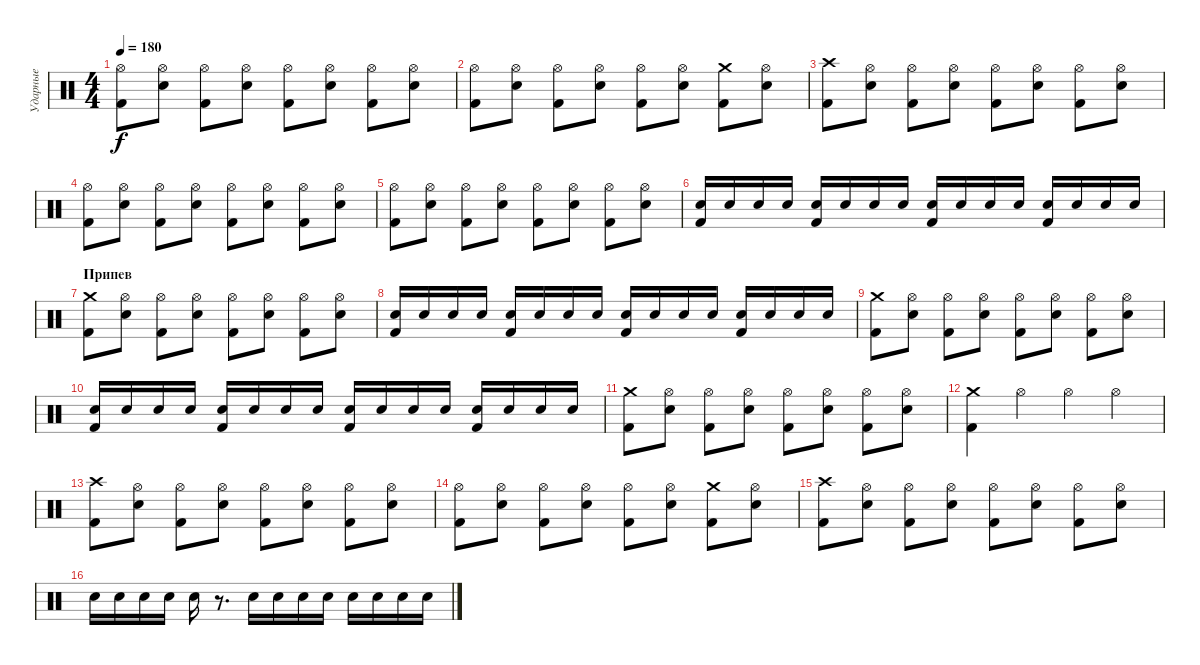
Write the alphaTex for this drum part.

\track ("Ударные" "Ударные") {instrument percussion}
\staff {score}
\articulation defaults
\ts (4 4)
\tempo 180
\clef neutral
\ks c
("Hi-Hat (open)" "Kick (hit) 2").8{dy f} ("Hi-Hat (open)" "Electric Snare (hit)").8 ("Hi-Hat (open)" "Kick (hit) 2").8 ("Hi-Hat (open)" "Electric Snare (hit)").8 ("Hi-Hat (open)" "Kick (hit) 2").8 ("Hi-Hat (open)" "Electric Snare (hit)").8 ("Hi-Hat (open)" "Kick (hit) 2").8 ("Hi-Hat (open)" "Electric Snare (hit)").8 |
("Hi-Hat (open)" "Kick (hit) 2").8 ("Hi-Hat (open)" "Electric Snare (hit)").8 ("Hi-Hat (open)" "Kick (hit) 2").8 ("Hi-Hat (open)" "Electric Snare (hit)").8 ("Hi-Hat (open)" "Kick (hit) 2").8 ("Hi-Hat (open)" "Electric Snare (hit)").8 ("Crash medium (hit)" "Kick (hit) 2").8 ("Hi-Hat (open)" "Electric Snare (hit)").8 |
("Crash high (hit)" "Kick (hit) 2").8 ("Hi-Hat (open)" "Electric Snare (hit)").8 ("Hi-Hat (open)" "Kick (hit) 2").8 ("Hi-Hat (open)" "Electric Snare (hit)").8 ("Hi-Hat (open)" "Kick (hit) 2").8 ("Hi-Hat (open)" "Electric Snare (hit)").8 ("Hi-Hat (open)" "Kick (hit) 2").8 ("Hi-Hat (open)" "Electric Snare (hit)").8 |
("Hi-Hat (open)" "Kick (hit) 2").8 ("Hi-Hat (open)" "Electric Snare (hit)").8 ("Hi-Hat (open)" "Kick (hit) 2").8 ("Hi-Hat (open)" "Electric Snare (hit)").8 ("Hi-Hat (open)" "Kick (hit) 2").8 ("Hi-Hat (open)" "Electric Snare (hit)").8 ("Hi-Hat (open)" "Kick (hit) 2").8 ("Hi-Hat (open)" "Electric Snare (hit)").8 |
("Hi-Hat (open)" "Kick (hit) 2").8 ("Hi-Hat (open)" "Electric Snare (hit)").8 ("Hi-Hat (open)" "Kick (hit) 2").8 ("Hi-Hat (open)" "Electric Snare (hit)").8 ("Hi-Hat (open)" "Kick (hit) 2").8 ("Hi-Hat (open)" "Electric Snare (hit)").8 ("Hi-Hat (open)" "Kick (hit) 2").8 ("Hi-Hat (open)" "Electric Snare (hit)").8 |
("Electric Snare (hit)" "Kick (hit) 2").16 "Electric Snare (hit)".16 "Electric Snare (hit)".16 "Electric Snare (hit)".16 ("Electric Snare (hit)" "Kick (hit) 2").16 "Electric Snare (hit)".16 "Electric Snare (hit)".16 "Electric Snare (hit)".16 ("Electric Snare (hit)" "Kick (hit) 2").16 "Electric Snare (hit)".16 "Electric Snare (hit)".16 "Electric Snare (hit)".16 ("Electric Snare (hit)" "Kick (hit) 2").16 "Electric Snare (hit)".16 "Electric Snare (hit)".16 "Electric Snare (hit)".16 |
\section ("" "Припев")
("Crash medium (hit)" "Kick (hit) 2").8 ("Hi-Hat (open)" "Electric Snare (hit)").8 ("Hi-Hat (open)" "Kick (hit) 2").8 ("Hi-Hat (open)" "Electric Snare (hit)").8 ("Hi-Hat (open)" "Kick (hit) 2").8 ("Hi-Hat (open)" "Electric Snare (hit)").8 ("Hi-Hat (open)" "Kick (hit) 2").8 ("Hi-Hat (open)" "Electric Snare (hit)").8 |
("Electric Snare (hit)" "Kick (hit) 2").16 "Electric Snare (hit)".16 "Electric Snare (hit)".16 "Electric Snare (hit)".16 ("Electric Snare (hit)" "Kick (hit) 2").16 "Electric Snare (hit)".16 "Electric Snare (hit)".16 "Electric Snare (hit)".16 ("Electric Snare (hit)" "Kick (hit) 2").16 "Electric Snare (hit)".16 "Electric Snare (hit)".16 "Electric Snare (hit)".16 ("Electric Snare (hit)" "Kick (hit) 2").16 "Electric Snare (hit)".16 "Electric Snare (hit)".16 "Electric Snare (hit)".16 |
("Crash medium (hit)" "Kick (hit) 2").8 ("Hi-Hat (open)" "Electric Snare (hit)").8 ("Hi-Hat (open)" "Kick (hit) 2").8 ("Hi-Hat (open)" "Electric Snare (hit)").8 ("Hi-Hat (open)" "Kick (hit) 2").8 ("Hi-Hat (open)" "Electric Snare (hit)").8 ("Hi-Hat (open)" "Kick (hit) 2").8 ("Hi-Hat (open)" "Electric Snare (hit)").8 |
("Electric Snare (hit)" "Kick (hit) 2").16 "Electric Snare (hit)".16 "Electric Snare (hit)".16 "Electric Snare (hit)".16 ("Electric Snare (hit)" "Kick (hit) 2").16 "Electric Snare (hit)".16 "Electric Snare (hit)".16 "Electric Snare (hit)".16 ("Electric Snare (hit)" "Kick (hit) 2").16 "Electric Snare (hit)".16 "Electric Snare (hit)".16 "Electric Snare (hit)".16 ("Electric Snare (hit)" "Kick (hit) 2").16 "Electric Snare (hit)".16 "Electric Snare (hit)".16 "Electric Snare (hit)".16 |
("Crash medium (hit)" "Kick (hit) 2").8 ("Hi-Hat (open)" "Electric Snare (hit)").8 ("Hi-Hat (open)" "Kick (hit) 2").8 ("Hi-Hat (open)" "Electric Snare (hit)").8 ("Hi-Hat (open)" "Kick (hit) 2").8 ("Hi-Hat (open)" "Electric Snare (hit)").8 ("Hi-Hat (open)" "Kick (hit) 2").8 ("Hi-Hat (open)" "Electric Snare (hit)").8 |
("Crash medium (hit)" "Kick (hit) 2").4 "Hi-Hat (open)".4 "Hi-Hat (open)".4 "Hi-Hat (open)".4 |
("Crash high (hit)" "Kick (hit) 2").8 ("Hi-Hat (open)" "Electric Snare (hit)").8 ("Hi-Hat (open)" "Kick (hit) 2").8 ("Hi-Hat (open)" "Electric Snare (hit)").8 ("Hi-Hat (open)" "Kick (hit) 2").8 ("Hi-Hat (open)" "Electric Snare (hit)").8 ("Hi-Hat (open)" "Kick (hit) 2").8 ("Hi-Hat (open)" "Electric Snare (hit)").8 |
("Hi-Hat (open)" "Kick (hit) 2").8 ("Hi-Hat (open)" "Electric Snare (hit)").8 ("Hi-Hat (open)" "Kick (hit) 2").8 ("Hi-Hat (open)" "Electric Snare (hit)").8 ("Hi-Hat (open)" "Kick (hit) 2").8 ("Hi-Hat (open)" "Electric Snare (hit)").8 ("Crash medium (hit)" "Kick (hit) 2").8 ("Hi-Hat (open)" "Electric Snare (hit)").8 |
("Crash high (hit)" "Kick (hit) 2").8 ("Hi-Hat (open)" "Electric Snare (hit)").8 ("Hi-Hat (open)" "Kick (hit) 2").8 ("Hi-Hat (open)" "Electric Snare (hit)").8 ("Hi-Hat (open)" "Kick (hit) 2").8 ("Hi-Hat (open)" "Electric Snare (hit)").8 ("Hi-Hat (open)" "Kick (hit) 2").8 ("Hi-Hat (open)" "Electric Snare (hit)").8 |
"Electric Snare (hit)".16 "Electric Snare (hit)".16 "Electric Snare (hit)".16 "Electric Snare (hit)".16 "Electric Snare (hit)".16 r.8{d} "Electric Snare (hit)".16 "Electric Snare (hit)".16 "Electric Snare (hit)".16 "Electric Snare (hit)".16 "Electric Snare (hit)".16 "Electric Snare (hit)".16 "Electric Snare (hit)".16 "Electric Snare (hit)".16
